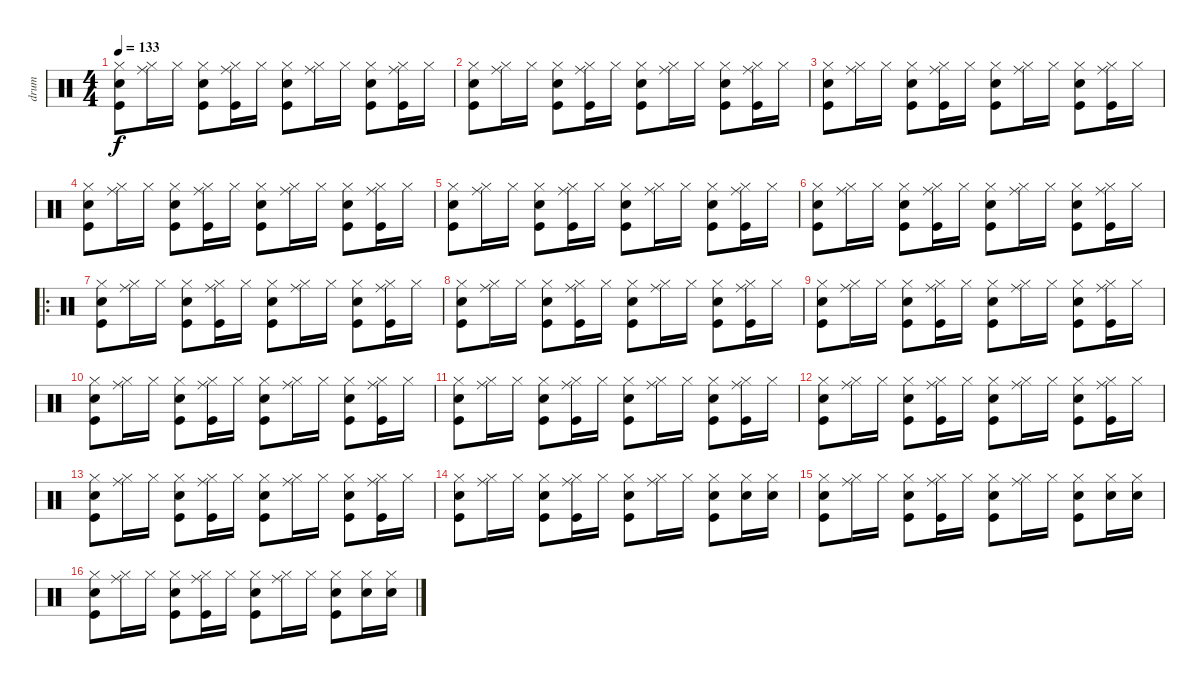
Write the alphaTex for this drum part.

\track ("drum" "drum") {instrument percussion}
\staff {score}
\articulation defaults
\ts (4 4)
\tempo 133
\clef neutral
\ks c
("Hi-Hat (closed)" "Snare (hit) 2" "Kick (hit)").8{dy f} ("Hi-Hat (closed)" "Ride (middle)").16 "Hi-Hat (closed)".16 ("Hi-Hat (closed)" "Snare (hit) 2" "Kick (hit)").8 ("Hi-Hat (closed)" "Ride (middle)" "Kick (hit)").16 "Hi-Hat (closed)".16 ("Hi-Hat (closed)" "Snare (hit) 2" "Kick (hit)").8 ("Hi-Hat (closed)" "Ride (middle)").16 "Hi-Hat (closed)".16 ("Hi-Hat (closed)" "Snare (hit) 2" "Kick (hit)").8 ("Hi-Hat (closed)" "Ride (middle)" "Kick (hit)").16 "Hi-Hat (closed)".16 |
("Hi-Hat (closed)" "Snare (hit) 2" "Kick (hit)").8 ("Hi-Hat (closed)" "Ride (middle)").16 "Hi-Hat (closed)".16 ("Hi-Hat (closed)" "Snare (hit) 2" "Kick (hit)").8 ("Hi-Hat (closed)" "Ride (middle)" "Kick (hit)").16 "Hi-Hat (closed)".16 ("Hi-Hat (closed)" "Snare (hit) 2" "Kick (hit)").8 ("Hi-Hat (closed)" "Ride (middle)").16 "Hi-Hat (closed)".16 ("Hi-Hat (closed)" "Snare (hit) 2" "Kick (hit)").8 ("Hi-Hat (closed)" "Ride (middle)" "Kick (hit)").16 "Hi-Hat (closed)".16 |
("Hi-Hat (closed)" "Snare (hit) 2" "Kick (hit)").8 ("Hi-Hat (closed)" "Ride (middle)").16 "Hi-Hat (closed)".16 ("Hi-Hat (closed)" "Snare (hit) 2" "Kick (hit)").8 ("Hi-Hat (closed)" "Ride (middle)" "Kick (hit)").16 "Hi-Hat (closed)".16 ("Hi-Hat (closed)" "Snare (hit) 2" "Kick (hit)").8 ("Hi-Hat (closed)" "Ride (middle)").16 "Hi-Hat (closed)".16 ("Hi-Hat (closed)" "Snare (hit) 2" "Kick (hit)").8 ("Hi-Hat (closed)" "Ride (middle)" "Kick (hit)").16 "Hi-Hat (closed)".16 |
("Hi-Hat (closed)" "Snare (hit) 2" "Kick (hit)").8 ("Hi-Hat (closed)" "Ride (middle)").16 "Hi-Hat (closed)".16 ("Hi-Hat (closed)" "Snare (hit) 2" "Kick (hit)").8 ("Hi-Hat (closed)" "Ride (middle)" "Kick (hit)").16 "Hi-Hat (closed)".16 ("Hi-Hat (closed)" "Snare (hit) 2" "Kick (hit)").8 ("Hi-Hat (closed)" "Ride (middle)").16 "Hi-Hat (closed)".16 ("Hi-Hat (closed)" "Snare (hit) 2" "Kick (hit)").8 ("Hi-Hat (closed)" "Ride (middle)" "Kick (hit)").16 "Hi-Hat (closed)".16 |
("Hi-Hat (closed)" "Snare (hit) 2" "Kick (hit)").8 ("Hi-Hat (closed)" "Ride (middle)").16 "Hi-Hat (closed)".16 ("Hi-Hat (closed)" "Snare (hit) 2" "Kick (hit)").8 ("Hi-Hat (closed)" "Ride (middle)" "Kick (hit)").16 "Hi-Hat (closed)".16 ("Hi-Hat (closed)" "Snare (hit) 2" "Kick (hit)").8 ("Hi-Hat (closed)" "Ride (middle)").16 "Hi-Hat (closed)".16 ("Hi-Hat (closed)" "Snare (hit) 2" "Kick (hit)").8 ("Hi-Hat (closed)" "Ride (middle)" "Kick (hit)").16 "Hi-Hat (closed)".16 |
("Hi-Hat (closed)" "Snare (hit) 2" "Kick (hit)").8 ("Hi-Hat (closed)" "Ride (middle)").16 "Hi-Hat (closed)".16 ("Hi-Hat (closed)" "Snare (hit) 2" "Kick (hit)").8 ("Hi-Hat (closed)" "Ride (middle)" "Kick (hit)").16 "Hi-Hat (closed)".16 ("Hi-Hat (closed)" "Snare (hit) 2" "Kick (hit)").8 ("Hi-Hat (closed)" "Ride (middle)").16 "Hi-Hat (closed)".16 ("Hi-Hat (closed)" "Snare (hit) 2" "Kick (hit)").8 ("Hi-Hat (closed)" "Ride (middle)" "Kick (hit)").16 "Hi-Hat (closed)".16 |
\ro
("Hi-Hat (closed)" "Snare (hit) 2" "Kick (hit)").8 ("Hi-Hat (closed)" "Ride (middle)").16 "Hi-Hat (closed)".16 ("Hi-Hat (closed)" "Snare (hit) 2" "Kick (hit)").8 ("Hi-Hat (closed)" "Ride (middle)" "Kick (hit)").16 "Hi-Hat (closed)".16 ("Hi-Hat (closed)" "Snare (hit) 2" "Kick (hit)").8 ("Hi-Hat (closed)" "Ride (middle)").16 "Hi-Hat (closed)".16 ("Hi-Hat (closed)" "Snare (hit) 2" "Kick (hit)").8 ("Hi-Hat (closed)" "Ride (middle)" "Kick (hit)").16 "Hi-Hat (closed)".16 |
("Hi-Hat (closed)" "Snare (hit) 2" "Kick (hit)").8 ("Hi-Hat (closed)" "Ride (middle)").16 "Hi-Hat (closed)".16 ("Hi-Hat (closed)" "Snare (hit) 2" "Kick (hit)").8 ("Hi-Hat (closed)" "Ride (middle)" "Kick (hit)").16 "Hi-Hat (closed)".16 ("Hi-Hat (closed)" "Snare (hit) 2" "Kick (hit)").8 ("Hi-Hat (closed)" "Ride (middle)").16 "Hi-Hat (closed)".16 ("Hi-Hat (closed)" "Snare (hit) 2" "Kick (hit)").8 ("Hi-Hat (closed)" "Ride (middle)" "Kick (hit)").16 "Hi-Hat (closed)".16 |
("Hi-Hat (closed)" "Snare (hit) 2" "Kick (hit)").8 ("Hi-Hat (closed)" "Ride (middle)").16 "Hi-Hat (closed)".16 ("Hi-Hat (closed)" "Snare (hit) 2" "Kick (hit)").8 ("Hi-Hat (closed)" "Ride (middle)" "Kick (hit)").16 "Hi-Hat (closed)".16 ("Hi-Hat (closed)" "Snare (hit) 2" "Kick (hit)").8 ("Hi-Hat (closed)" "Ride (middle)").16 "Hi-Hat (closed)".16 ("Hi-Hat (closed)" "Snare (hit) 2" "Kick (hit)").8 ("Hi-Hat (closed)" "Ride (middle)" "Kick (hit)").16 "Hi-Hat (closed)".16 |
("Hi-Hat (closed)" "Snare (hit) 2" "Kick (hit)").8 ("Hi-Hat (closed)" "Ride (middle)").16 "Hi-Hat (closed)".16 ("Hi-Hat (closed)" "Snare (hit) 2" "Kick (hit)").8 ("Hi-Hat (closed)" "Ride (middle)" "Kick (hit)").16 "Hi-Hat (closed)".16 ("Hi-Hat (closed)" "Snare (hit) 2" "Kick (hit)").8 ("Hi-Hat (closed)" "Ride (middle)").16 "Hi-Hat (closed)".16 ("Hi-Hat (closed)" "Snare (hit) 2" "Kick (hit)").8 ("Hi-Hat (closed)" "Ride (middle)" "Kick (hit)").16 "Hi-Hat (closed)".16 |
("Hi-Hat (closed)" "Snare (hit) 2" "Kick (hit)").8 ("Hi-Hat (closed)" "Ride (middle)").16 "Hi-Hat (closed)".16 ("Hi-Hat (closed)" "Snare (hit) 2" "Kick (hit)").8 ("Hi-Hat (closed)" "Ride (middle)" "Kick (hit)").16 "Hi-Hat (closed)".16 ("Hi-Hat (closed)" "Snare (hit) 2" "Kick (hit)").8 ("Hi-Hat (closed)" "Ride (middle)").16 "Hi-Hat (closed)".16 ("Hi-Hat (closed)" "Snare (hit) 2" "Kick (hit)").8 ("Hi-Hat (closed)" "Ride (middle)" "Kick (hit)").16 "Hi-Hat (closed)".16 |
("Hi-Hat (closed)" "Snare (hit) 2" "Kick (hit)").8 ("Hi-Hat (closed)" "Ride (middle)").16 "Hi-Hat (closed)".16 ("Hi-Hat (closed)" "Snare (hit) 2" "Kick (hit)").8 ("Hi-Hat (closed)" "Ride (middle)" "Kick (hit)").16 "Hi-Hat (closed)".16 ("Hi-Hat (closed)" "Snare (hit) 2" "Kick (hit)").8 ("Hi-Hat (closed)" "Ride (middle)").16 "Hi-Hat (closed)".16 ("Hi-Hat (closed)" "Snare (hit) 2" "Kick (hit)").8 ("Hi-Hat (closed)" "Ride (middle)" "Kick (hit)").16 "Hi-Hat (closed)".16 |
("Hi-Hat (closed)" "Snare (hit) 2" "Kick (hit)").8 ("Hi-Hat (closed)" "Ride (middle)").16 "Hi-Hat (closed)".16 ("Hi-Hat (closed)" "Snare (hit) 2" "Kick (hit)").8 ("Hi-Hat (closed)" "Ride (middle)" "Kick (hit)").16 "Hi-Hat (closed)".16 ("Hi-Hat (closed)" "Snare (hit) 2" "Kick (hit)").8 ("Hi-Hat (closed)" "Ride (middle)").16 "Hi-Hat (closed)".16 ("Hi-Hat (closed)" "Snare (hit) 2" "Kick (hit)").8 ("Hi-Hat (closed)" "Ride (middle)" "Kick (hit)").16 "Hi-Hat (closed)".16 |
("Hi-Hat (closed)" "Snare (hit) 2" "Kick (hit)").8 ("Hi-Hat (closed)" "Ride (middle)").16 "Hi-Hat (closed)".16 ("Hi-Hat (closed)" "Snare (hit) 2" "Kick (hit)").8 ("Hi-Hat (closed)" "Ride (middle)" "Kick (hit)").16 "Hi-Hat (closed)".16 ("Hi-Hat (closed)" "Snare (hit) 2" "Kick (hit)").8 ("Hi-Hat (closed)" "Ride (middle)").16 "Hi-Hat (closed)".16 ("Hi-Hat (closed)" "Snare (hit) 2" "Kick (hit)").8 ("Hi-Hat (closed)" "Snare (hit) 2").16 ("Hi-Hat (closed)" "Snare (hit) 2").16 |
("Hi-Hat (closed)" "Snare (hit) 2" "Kick (hit)").8 ("Hi-Hat (closed)" "Ride (middle)").16 "Hi-Hat (closed)".16 ("Hi-Hat (closed)" "Snare (hit) 2" "Kick (hit)").8 ("Hi-Hat (closed)" "Ride (middle)" "Kick (hit)").16 "Hi-Hat (closed)".16 ("Hi-Hat (closed)" "Snare (hit) 2" "Kick (hit)").8 ("Hi-Hat (closed)" "Ride (middle)").16 "Hi-Hat (closed)".16 ("Hi-Hat (closed)" "Snare (hit) 2" "Kick (hit)").8 ("Hi-Hat (closed)" "Snare (hit) 2").16 ("Hi-Hat (closed)" "Snare (hit) 2").16 |
("Hi-Hat (closed)" "Snare (hit) 2" "Kick (hit)").8 ("Hi-Hat (closed)" "Ride (middle)").16 "Hi-Hat (closed)".16 ("Hi-Hat (closed)" "Snare (hit) 2" "Kick (hit)").8 ("Hi-Hat (closed)" "Ride (middle)" "Kick (hit)").16 "Hi-Hat (closed)".16 ("Hi-Hat (closed)" "Snare (hit) 2" "Kick (hit)").8 ("Hi-Hat (closed)" "Ride (middle)").16 "Hi-Hat (closed)".16 ("Hi-Hat (closed)" "Snare (hit) 2" "Kick (hit)").8 ("Hi-Hat (closed)" "Snare (hit) 2").16 ("Hi-Hat (closed)" "Snare (hit) 2").16
